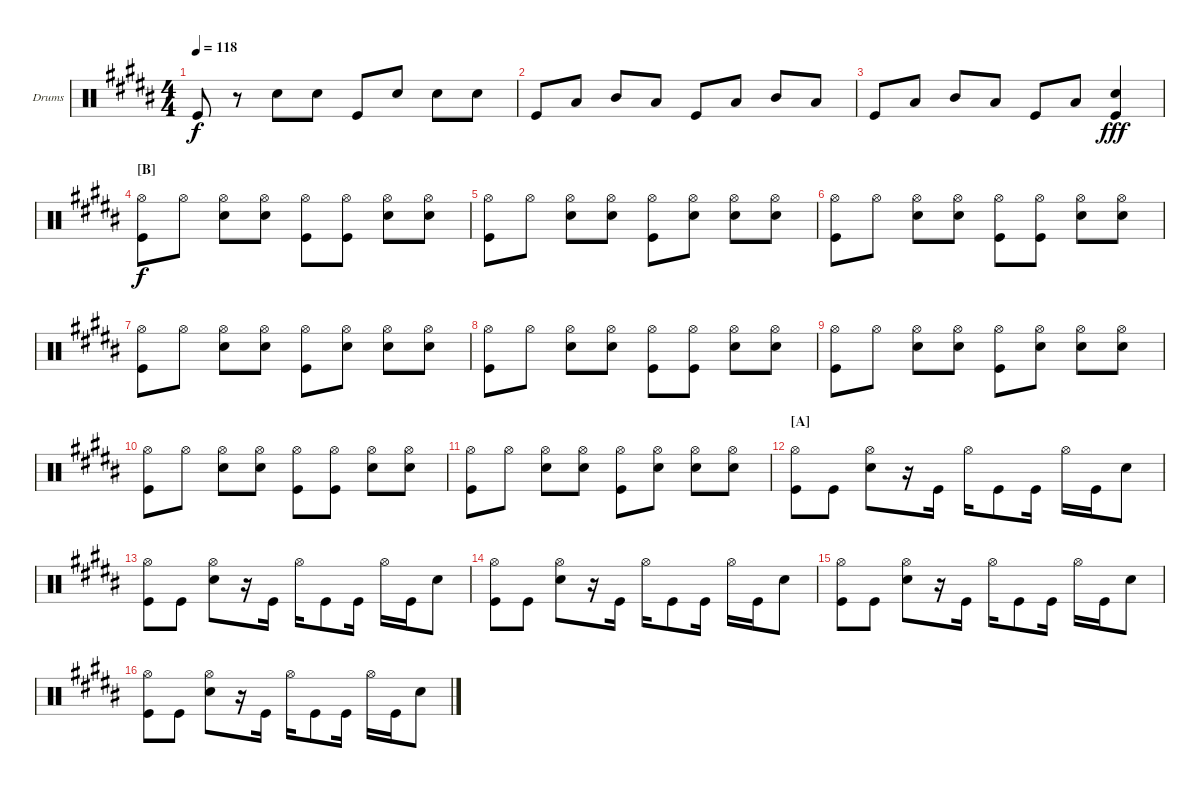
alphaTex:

\bracketExtendMode groupsimilarinstruments
\firstSystemTrackNameOrientation horizontal
\otherSystemsTrackNameOrientation horizontal
\track ("Fabrizio Moretti" "Drums") {instrument percussion}
\staff {score}
\articulation defaults
\ts (4 4)
\tempo 118
\clef neutral
\ks b "Kick (hit)".8{dy f}
r.8 "Snare (hit) 2".8 "Snare (hit) 2".8 "Kick (hit)".8 "Snare (hit) 2".8 "Snare (hit) 2".8 "Snare (hit) 2".8 |
"Kick (hit)".8 "Low Tom (hit)".8 "Mid Tom (hit)".8 "Low Tom (hit)".8 "Kick (hit)".8 "Low Tom (hit)".8 "Mid Tom (hit)".8 "Low Tom (hit)".8 |
"Kick (hit)".8 "Low Tom (hit)".8 "Mid Tom (hit)".8 "Low Tom (hit)".8 "Kick (hit)".8 "Low Tom (hit)".8 ("Snare (hit) 2" "Kick (hit)").4{dy fff} |
\section ("B" "")
("Hi-Hat (open)" "Kick (hit)").8{dy f} "Hi-Hat (open)".8 ("Hi-Hat (open)" "Snare (hit) 2").8 ("Hi-Hat (open)" "Snare (hit) 2").8 ("Hi-Hat (open)" "Kick (hit)").8 ("Hi-Hat (open)" "Kick (hit)").8 ("Hi-Hat (open)" "Snare (hit) 2").8 ("Hi-Hat (open)" "Snare (hit) 2").8 |
("Hi-Hat (open)" "Kick (hit)").8 "Hi-Hat (open)".8 ("Hi-Hat (open)" "Snare (hit) 2").8 ("Hi-Hat (open)" "Snare (hit) 2").8 ("Kick (hit)" "Hi-Hat (open)").8 ("Hi-Hat (open)" "Snare (hit) 2").8 ("Hi-Hat (open)" "Snare (hit) 2").8 ("Hi-Hat (open)" "Snare (hit) 2").8 |
("Hi-Hat (open)" "Kick (hit)").8 "Hi-Hat (open)".8 ("Hi-Hat (open)" "Snare (hit) 2").8 ("Hi-Hat (open)" "Snare (hit) 2").8 ("Hi-Hat (open)" "Kick (hit)").8 ("Hi-Hat (open)" "Kick (hit)").8 ("Hi-Hat (open)" "Snare (hit) 2").8 ("Hi-Hat (open)" "Snare (hit) 2").8 |
("Hi-Hat (open)" "Kick (hit)").8 "Hi-Hat (open)".8 ("Hi-Hat (open)" "Snare (hit) 2").8 ("Hi-Hat (open)" "Snare (hit) 2").8 ("Kick (hit)" "Hi-Hat (open)").8 ("Hi-Hat (open)" "Snare (hit) 2").8 ("Hi-Hat (open)" "Snare (hit) 2").8 ("Hi-Hat (open)" "Snare (hit) 2").8 |
("Hi-Hat (open)" "Kick (hit)").8 "Hi-Hat (open)".8 ("Hi-Hat (open)" "Snare (hit) 2").8 ("Hi-Hat (open)" "Snare (hit) 2").8 ("Hi-Hat (open)" "Kick (hit)").8 ("Hi-Hat (open)" "Kick (hit)").8 ("Hi-Hat (open)" "Snare (hit) 2").8 ("Hi-Hat (open)" "Snare (hit) 2").8 |
("Hi-Hat (open)" "Kick (hit)").8 "Hi-Hat (open)".8 ("Hi-Hat (open)" "Snare (hit) 2").8 ("Hi-Hat (open)" "Snare (hit) 2").8 ("Kick (hit)" "Hi-Hat (open)").8 ("Hi-Hat (open)" "Snare (hit) 2").8 ("Hi-Hat (open)" "Snare (hit) 2").8 ("Hi-Hat (open)" "Snare (hit) 2").8 |
("Hi-Hat (open)" "Kick (hit)").8 "Hi-Hat (open)".8 ("Hi-Hat (open)" "Snare (hit) 2").8 ("Hi-Hat (open)" "Snare (hit) 2").8 ("Hi-Hat (open)" "Kick (hit)").8 ("Hi-Hat (open)" "Kick (hit)").8 ("Hi-Hat (open)" "Snare (hit) 2").8 ("Hi-Hat (open)" "Snare (hit) 2").8 |
("Hi-Hat (open)" "Kick (hit)").8 "Hi-Hat (open)".8 ("Hi-Hat (open)" "Snare (hit) 2").8 ("Hi-Hat (open)" "Snare (hit) 2").8 ("Kick (hit)" "Hi-Hat (open)").8 ("Hi-Hat (open)" "Snare (hit) 2").8 ("Hi-Hat (open)" "Snare (hit) 2").8 ("Hi-Hat (open)" "Snare (hit) 2").8 |
\section ("A" "")
("Hi-Hat (open)" "Kick (hit)").8 "Kick (hit)".8 ("Hi-Hat (open)" "Snare (hit) 2").8 r.16 "Kick (hit)".16 "Hi-Hat (open)".16 "Kick (hit)".8 "Kick (hit)".16 "Hi-Hat (open)".16 "Kick (hit)".16 "Snare (hit) 2".8 |
("Hi-Hat (open)" "Kick (hit)").8 "Kick (hit)".8 ("Hi-Hat (open)" "Snare (hit) 2").8 r.16 "Kick (hit)".16 "Hi-Hat (open)".16 "Kick (hit)".8 "Kick (hit)".16 "Hi-Hat (open)".16 "Kick (hit)".16 "Snare (hit) 2".8 |
("Hi-Hat (open)" "Kick (hit)").8 "Kick (hit)".8 ("Hi-Hat (open)" "Snare (hit) 2").8 r.16 "Kick (hit)".16 "Hi-Hat (open)".16 "Kick (hit)".8 "Kick (hit)".16 "Hi-Hat (open)".16 "Kick (hit)".16 "Snare (hit) 2".8 |
("Hi-Hat (open)" "Kick (hit)").8 "Kick (hit)".8 ("Hi-Hat (open)" "Snare (hit) 2").8 r.16 "Kick (hit)".16 "Hi-Hat (open)".16 "Kick (hit)".8 "Kick (hit)".16 "Hi-Hat (open)".16 "Kick (hit)".16 "Snare (hit) 2".8 |
("Hi-Hat (open)" "Kick (hit)").8 "Kick (hit)".8 ("Hi-Hat (open)" "Snare (hit) 2").8 r.16 "Kick (hit)".16 "Hi-Hat (open)".16 "Kick (hit)".8 "Kick (hit)".16 "Hi-Hat (open)".16 "Kick (hit)".16 "Snare (hit) 2".8
